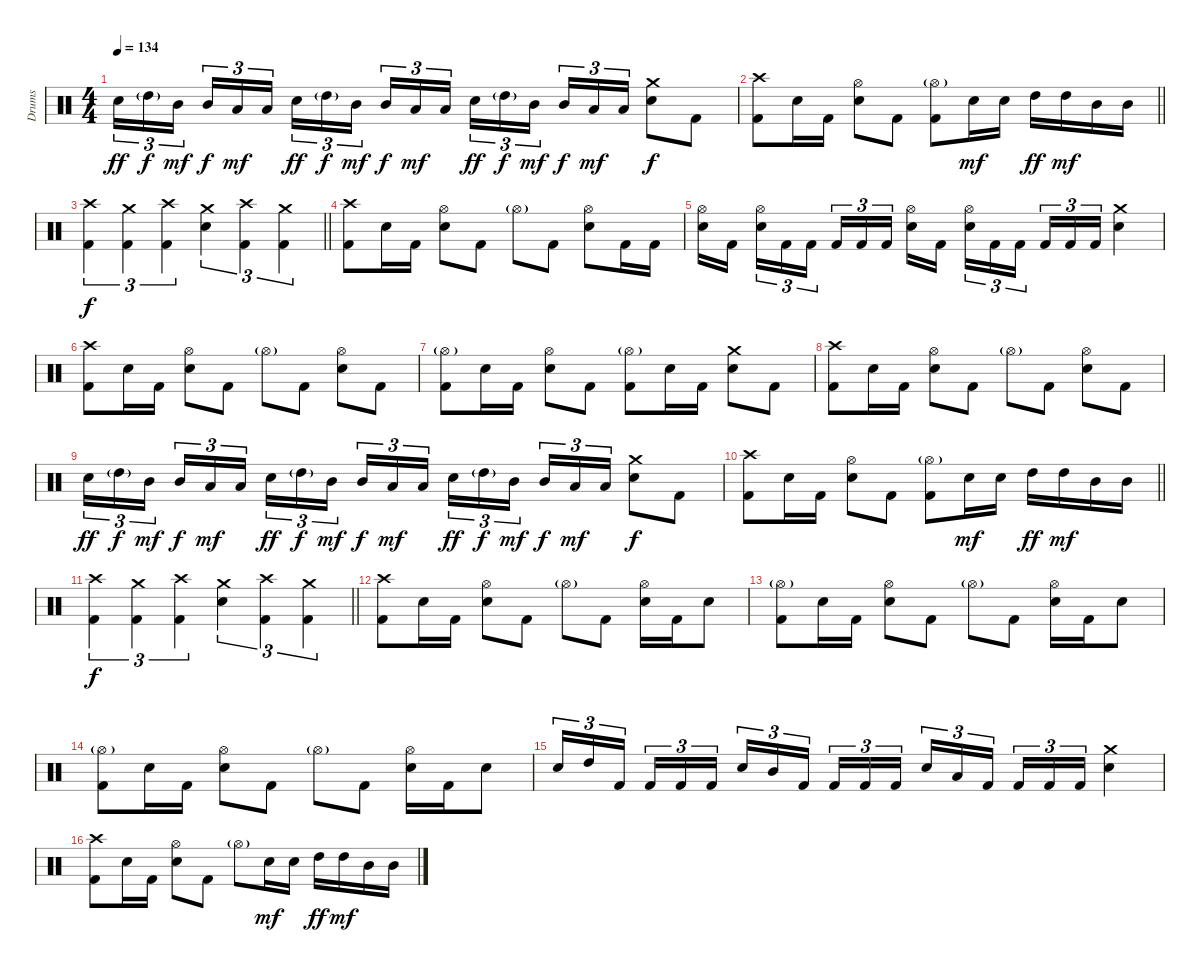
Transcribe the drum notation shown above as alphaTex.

\track ("Drums" "Drums") {instrument percussion}
\staff {score}
\articulation defaults
\ts (4 4)
\tempo 134
\clef neutral
\ks c "Snare (hit) 2".16{tu (3 2) dy ff} "High Tom (hit)"{g}.16{tu (3 2) dy f} "Mid Tom (hit)".16{tu (3 2) dy mf} "Mid Tom (hit)".16{tu (3 2) dy f} "Low Tom (hit)".16{tu (3 2) dy mf} "Low Tom (hit)".16{tu (3 2)} "Snare (hit) 2".16{tu (3 2) dy ff} "High Tom (hit)"{g}.16{tu (3 2) dy f} "Mid Tom (hit)".16{tu (3 2) dy mf} "Mid Tom (hit)".16{tu (3 2) dy f} "Low Tom (hit)".16{tu (3 2) dy mf} "Low Tom (hit)".16{tu (3 2)} "Snare (hit) 2".16{tu (3 2) dy ff} "High Tom (hit)"{g}.16{tu (3 2) dy f} "Mid Tom (hit)".16{tu (3 2) dy mf} "Mid Tom (hit)".16{tu (3 2) dy f} "Low Tom (hit)".16{tu (3 2) dy mf} "Low Tom (hit)".16{tu (3 2)}
("Crash medium (hit)" "Snare (hit) 2").8{dy f} "Kick (hit) 2".8 |
\barLineRight lightlight
("Crash high (hit)" "Kick (hit) 2").8 "Snare (hit)".16 "Kick (hit) 2".16 ("Hi-Hat (open)" "Snare (hit) 2").8 "Kick (hit) 2".8 ("Hi-Hat (open)"{g} "Kick (hit) 2").8 "Snare (hit) 2".16{dy mf} "Snare (hit) 2".16 "High Tom (hit)".16{dy ff} "High Tom (hit)".16{dy mf} "Mid Tom (hit)".16 "Mid Tom (hit)".16 |
\barLineRight lightlight
("Crash high (hit)" "Kick (hit) 2").4{tu (3 2) dy f} ("Crash medium (hit)" "Kick (hit) 2").4{tu (3 2)} ("Crash high (hit)" "Kick (hit) 2").4{tu (3 2)} ("Crash medium (hit)" "Snare (hit) 2").4{tu (3 2)} ("Crash high (hit)" "Kick (hit) 2").4{tu (3 2)} ("Crash medium (hit)" "Kick (hit) 2").4{tu (3 2)} |
("Crash high (hit)" "Kick (hit) 2").8 "Snare (hit)".16 "Kick (hit) 2".16 ("Hi-Hat (open)" "Snare (hit) 2").8 "Kick (hit) 2".8 "Hi-Hat (open)"{g}.8 "Kick (hit) 2".8 ("Hi-Hat (open)" "Snare (hit) 2").8 "Kick (hit) 2".16 "Kick (hit) 2".16 |
("Hi-Hat (open)" "Snare (hit) 2").16 "Kick (hit) 2".16 ("Hi-Hat (open)" "Snare (hit) 2").16{tu (3 2)} "Kick (hit) 2".16{tu (3 2)} "Kick (hit) 2".16{tu (3 2)} "Kick (hit) 2".16{tu (3 2)} "Kick (hit) 2".16{tu (3 2)} "Kick (hit) 2".16{tu (3 2)} ("Hi-Hat (open)" "Snare (hit) 2").16 "Kick (hit) 2".16 ("Hi-Hat (open)" "Snare (hit) 2").16{tu (3 2)} "Kick (hit) 2".16{tu (3 2)} "Kick (hit) 2".16{tu (3 2)} "Kick (hit) 2".16{tu (3 2)} "Kick (hit) 2".16{tu (3 2)} "Kick (hit) 2".16{tu (3 2)} ("Crash medium (hit)" "Snare (hit) 2").4 |
("Crash high (hit)" "Kick (hit) 2").8 "Snare (hit)".16 "Kick (hit) 2".16 ("Hi-Hat (open)" "Snare (hit) 2").8 "Kick (hit) 2".8 "Hi-Hat (open)"{g}.8 "Kick (hit) 2".8 ("Hi-Hat (open)" "Snare (hit) 2").8 "Kick (hit) 2".8 |
("Hi-Hat (open)"{g} "Kick (hit) 2").8 "Snare (hit)".16 "Kick (hit) 2".16 ("Hi-Hat (open)" "Snare (hit) 2").8 "Kick (hit) 2".8 ("Hi-Hat (open)"{g} "Kick (hit) 2").8 "Snare (hit)".16 "Kick (hit) 2".16 ("Crash medium (hit)" "Snare (hit) 2").8 "Kick (hit) 2".8 |
("Crash high (hit)" "Kick (hit) 2").8 "Snare (hit)".16 "Kick (hit) 2".16 ("Hi-Hat (open)" "Snare (hit) 2").8 "Kick (hit) 2".8 "Hi-Hat (open)"{g}.8 "Kick (hit) 2".8 ("Hi-Hat (open)" "Snare (hit) 2").8 "Kick (hit) 2".8 |
"Snare (hit) 2".16{tu (3 2) dy ff} "High Tom (hit)"{g}.16{tu (3 2) dy f} "Mid Tom (hit)".16{tu (3 2) dy mf} "Mid Tom (hit)".16{tu (3 2) dy f} "Low Tom (hit)".16{tu (3 2) dy mf} "Low Tom (hit)".16{tu (3 2)} "Snare (hit) 2".16{tu (3 2) dy ff} "High Tom (hit)"{g}.16{tu (3 2) dy f} "Mid Tom (hit)".16{tu (3 2) dy mf} "Mid Tom (hit)".16{tu (3 2) dy f} "Low Tom (hit)".16{tu (3 2) dy mf} "Low Tom (hit)".16{tu (3 2)} "Snare (hit) 2".16{tu (3 2) dy ff} "High Tom (hit)"{g}.16{tu (3 2) dy f} "Mid Tom (hit)".16{tu (3 2) dy mf} "Mid Tom (hit)".16{tu (3 2) dy f} "Low Tom (hit)".16{tu (3 2) dy mf} "Low Tom (hit)".16{tu (3 2)} ("Crash medium (hit)" "Snare (hit) 2").8{dy f} "Kick (hit) 2".8 |
\barLineRight lightlight
("Crash high (hit)" "Kick (hit) 2").8 "Snare (hit)".16 "Kick (hit) 2".16 ("Hi-Hat (open)" "Snare (hit) 2").8 "Kick (hit) 2".8 ("Hi-Hat (open)"{g} "Kick (hit) 2").8 "Snare (hit) 2".16{dy mf} "Snare (hit) 2".16 "High Tom (hit)".16{dy ff} "High Tom (hit)".16{dy mf} "Mid Tom (hit)".16 "Mid Tom (hit)".16 |
\barLineRight lightlight
("Crash high (hit)" "Kick (hit) 2").4{tu (3 2) dy f} ("Crash medium (hit)" "Kick (hit) 2").4{tu (3 2)} ("Crash high (hit)" "Kick (hit) 2").4{tu (3 2)} ("Crash medium (hit)" "Snare (hit) 2").4{tu (3 2)} ("Crash high (hit)" "Kick (hit) 2").4{tu (3 2)} ("Crash medium (hit)" "Kick (hit) 2").4{tu (3 2)} |
("Crash high (hit)" "Kick (hit) 2").8 "Snare (hit)".16 "Kick (hit) 2".16 ("Hi-Hat (open)" "Snare (hit) 2").8 "Kick (hit) 2".8 "Hi-Hat (open)"{g}.8 "Kick (hit) 2".8 ("Hi-Hat (open)" "Snare (hit) 2").16 "Kick (hit) 2".16 "Snare (hit)".8 |
("Hi-Hat (open)"{g} "Kick (hit) 2").8 "Snare (hit)".16 "Kick (hit) 2".16 ("Hi-Hat (open)" "Snare (hit) 2").8 "Kick (hit) 2".8 "Hi-Hat (open)"{g}.8 "Kick (hit) 2".8 ("Hi-Hat (open)" "Snare (hit) 2").16 "Kick (hit) 2".16 "Snare (hit)".8 |
("Hi-Hat (open)"{g} "Kick (hit) 2").8 "Snare (hit)".16 "Kick (hit) 2".16 ("Hi-Hat (open)" "Snare (hit) 2").8 "Kick (hit) 2".8 "Hi-Hat (open)"{g}.8 "Kick (hit) 2".8 ("Hi-Hat (open)" "Snare (hit) 2").16 "Kick (hit) 2".16 "Snare (hit)".8 |
"Snare (hit) 2".16{tu (3 2)} "High Tom (hit)".16{tu (3 2)} "Kick (hit) 2".16{tu (3 2)} "Kick (hit) 2".16{tu (3 2)} "Kick (hit) 2".16{tu (3 2)} "Kick (hit) 2".16{tu (3 2)} "Snare (hit) 2".16{tu (3 2)} "Mid Tom (hit)".16{tu (3 2)} "Kick (hit) 2".16{tu (3 2)} "Kick (hit) 2".16{tu (3 2)} "Kick (hit) 2".16{tu (3 2)} "Kick (hit) 2".16{tu (3 2)} "Snare (hit) 2".16{tu (3 2)} "Low Tom (hit)".16{tu (3 2)} "Kick (hit) 2".16{tu (3 2)} "Kick (hit) 2".16{tu (3 2)} "Kick (hit) 2".16{tu (3 2)} "Kick (hit) 2".16{tu (3 2)} ("Crash medium (hit)" "Snare (hit) 2").4 |
("Crash high (hit)" "Kick (hit) 2").8 "Snare (hit)".16 "Kick (hit) 2".16 ("Hi-Hat (open)" "Snare (hit) 2").8 "Kick (hit) 2".8 "Hi-Hat (open)"{g}.8 "Snare (hit) 2".16{dy mf} "Snare (hit) 2".16 "High Tom (hit)".16{dy ff} "High Tom (hit)".16{dy mf} "Mid Tom (hit)".16 "Mid Tom (hit)".16
